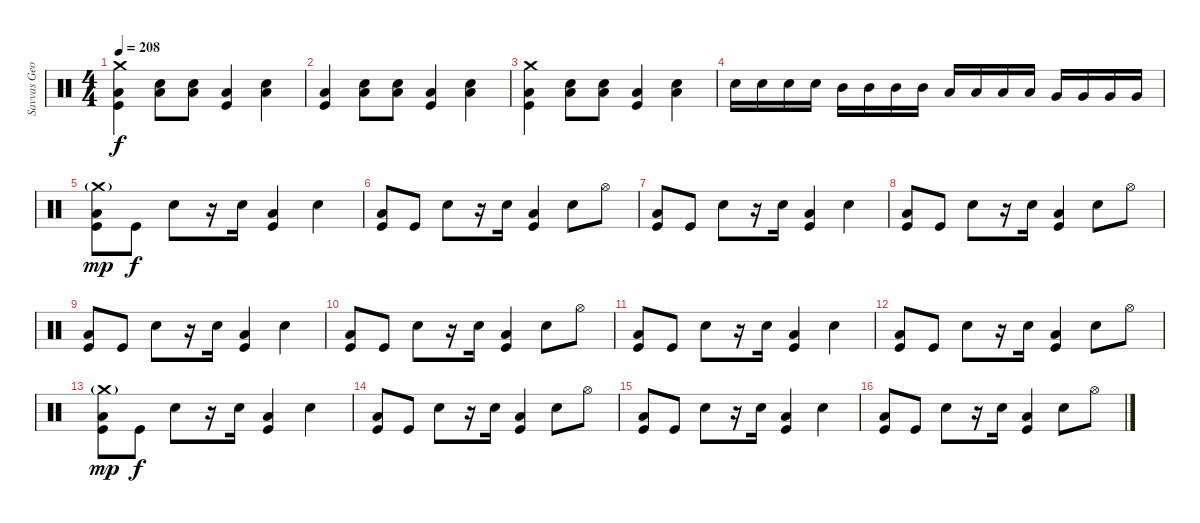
\track ("Savvas Georgiadis" "Savvas Geo") {instrument percussion}
\staff {score}
\articulation defaults
\ts (4 4)
\tempo 208
\clef neutral
\ks c
("Crash medium (hit)" "Low Tom (hit)" "Kick (hit)").4{dy f} ("Electric Snare (hit)" "Low Tom (hit)").8 ("Electric Snare (hit)" "Low Tom (hit)").8 ("Low Tom (hit)" "Kick (hit)").4 ("Electric Snare (hit)" "Low Tom (hit)").4 |
("Low Tom (hit)" "Kick (hit)").4 ("Electric Snare (hit)" "Low Tom (hit)").8 ("Electric Snare (hit)" "Low Tom (hit)").8 ("Low Tom (hit)" "Kick (hit)").4 ("Electric Snare (hit)" "Low Tom (hit)").4 |
("Crash medium (hit)" "Low Tom (hit)" "Kick (hit)").4 ("Electric Snare (hit)" "Low Tom (hit)").8 ("Electric Snare (hit)" "Low Tom (hit)").8 ("Low Tom (hit)" "Kick (hit)").4 ("Electric Snare (hit)" "Low Tom (hit)").4 |
"Electric Snare (hit)".16 "Electric Snare (hit)".16 "Electric Snare (hit)".16 "Electric Snare (hit)".16 "Mid Tom (hit)".16 "Mid Tom (hit)".16 "Mid Tom (hit)".16 "Mid Tom (hit)".16 "Low Tom (hit)".16 "Low Tom (hit)".16 "Low Tom (hit)".16 "Low Tom (hit)".16 "Very Low Tom (hit)".16 "Very Low Tom (hit)".16 "Very Low Tom (hit)".16 "Very Low Tom (hit)".16 |
("Crash medium (hit)"{g} "Low Tom (hit)" "Kick (hit)").8{dy mp} "Kick (hit)".8{dy f} "Electric Snare (hit)".8 r.16 "Electric Snare (hit)".16 ("Low Tom (hit)" "Kick (hit)").4 "Electric Snare (hit)".4 |
("Low Tom (hit)" "Kick (hit)").8 "Kick (hit)".8 "Electric Snare (hit)".8 r.16 "Electric Snare (hit)".16 ("Low Tom (hit)" "Kick (hit)").4 "Electric Snare (hit)".8 "Hi-Hat (open)".8 |
("Low Tom (hit)" "Kick (hit)").8 "Kick (hit)".8 "Electric Snare (hit)".8 r.16 "Electric Snare (hit)".16 ("Low Tom (hit)" "Kick (hit)").4 "Electric Snare (hit)".4 |
("Low Tom (hit)" "Kick (hit)").8 "Kick (hit)".8 "Electric Snare (hit)".8 r.16 "Electric Snare (hit)".16 ("Low Tom (hit)" "Kick (hit)").4 "Electric Snare (hit)".8 "Hi-Hat (open)".8 |
("Low Tom (hit)" "Kick (hit)").8 "Kick (hit)".8 "Electric Snare (hit)".8 r.16 "Electric Snare (hit)".16 ("Low Tom (hit)" "Kick (hit)").4 "Electric Snare (hit)".4 |
("Low Tom (hit)" "Kick (hit)").8 "Kick (hit)".8 "Electric Snare (hit)".8 r.16 "Electric Snare (hit)".16 ("Low Tom (hit)" "Kick (hit)").4 "Electric Snare (hit)".8 "Hi-Hat (open)".8 |
("Low Tom (hit)" "Kick (hit)").8 "Kick (hit)".8 "Electric Snare (hit)".8 r.16 "Electric Snare (hit)".16 ("Low Tom (hit)" "Kick (hit)").4 "Electric Snare (hit)".4 |
("Low Tom (hit)" "Kick (hit)").8 "Kick (hit)".8 "Electric Snare (hit)".8 r.16 "Electric Snare (hit)".16 ("Low Tom (hit)" "Kick (hit)").4 "Electric Snare (hit)".8 "Hi-Hat (open)".8 |
("Crash medium (hit)"{g} "Low Tom (hit)" "Kick (hit)").8{dy mp} "Kick (hit)".8{dy f} "Electric Snare (hit)".8 r.16 "Electric Snare (hit)".16 ("Low Tom (hit)" "Kick (hit)").4 "Electric Snare (hit)".4 |
("Low Tom (hit)" "Kick (hit)").8 "Kick (hit)".8 "Electric Snare (hit)".8 r.16 "Electric Snare (hit)".16 ("Low Tom (hit)" "Kick (hit)").4 "Electric Snare (hit)".8 "Hi-Hat (open)".8 |
("Low Tom (hit)" "Kick (hit)").8 "Kick (hit)".8 "Electric Snare (hit)".8 r.16 "Electric Snare (hit)".16 ("Low Tom (hit)" "Kick (hit)").4 "Electric Snare (hit)".4 |
("Low Tom (hit)" "Kick (hit)").8 "Kick (hit)".8 "Electric Snare (hit)".8 r.16 "Electric Snare (hit)".16 ("Low Tom (hit)" "Kick (hit)").4 "Electric Snare (hit)".8 "Hi-Hat (open)".8
